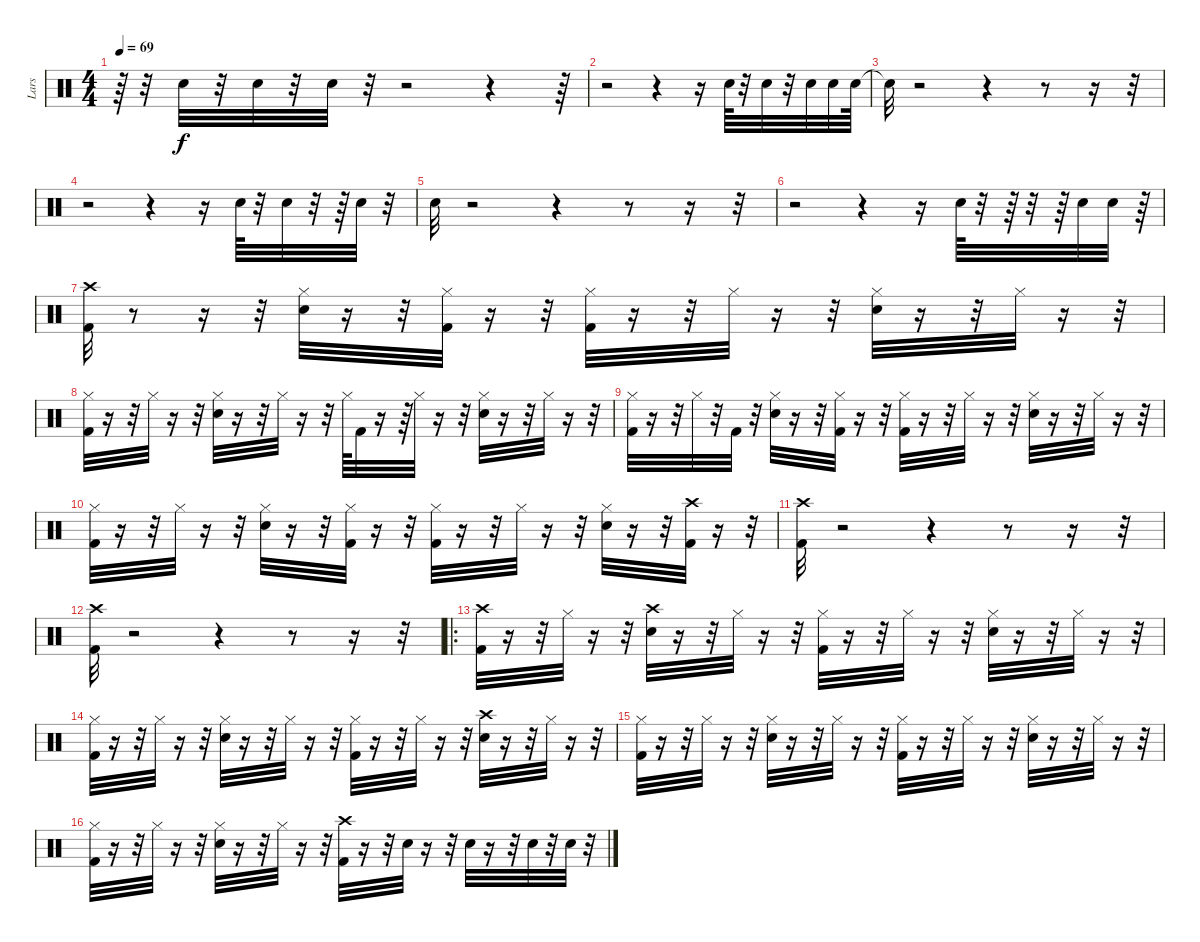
\track ("Lars" "Lars") {instrument percussion}
\staff {score}
\articulation defaults
\ts (4 4)
\tempo 69
\clef neutral
\ks c
r.64{dy f} r.32 "Snare (hit) 2".32 r.32 "Snare (hit) 2".32 r.32 "Snare (hit) 2".32 r.32 r.2 r.4 r.64 |
r.2 r.4 r.16 "Snare (hit) 2".64 r.32 "Snare (hit) 2".32 r.32 "Snare (hit) 2".32 "Snare (hit) 2".32 "Snare (hit) 2".64 |
"Snare (hit)"{t}.32 r.2 r.4 r.8 r.16 r.32 |
r.2 r.4 r.16 "Snare (hit) 2".64 r.32 "Snare (hit) 2".32 r.32 r.64 "Snare (hit) 2".32 r.32 |
"Snare (hit) 2".32 r.2 r.4 r.8 r.16 r.32 |
r.2 r.4 r.16 "Snare (hit) 2".64 r.32 r.64 r.32 r.64 "Snare (hit) 2".32 "Snare (hit) 2".32 r.64 |
("Kick (hit) 2" "Crash high (hit)").32 r.8 r.16 r.32 ("Snare (hit) 2" "Hi-Hat (closed)").32 r.16 r.32 ("Hi-Hat (closed)" "Kick (hit) 2").32 r.16 r.32 ("Hi-Hat (closed)" "Kick (hit) 2").32 r.16 r.32 "Hi-Hat (closed)".32 r.16 r.32 ("Snare (hit) 2" "Hi-Hat (closed)").32 r.16 r.32 "Hi-Hat (closed)".32 r.16 r.32 |
("Hi-Hat (closed)" "Kick (hit) 2").32 r.16 r.32 "Hi-Hat (closed)".32 r.16 r.32 ("Snare (hit) 2" "Hi-Hat (closed)").32 r.16 r.32 "Hi-Hat (closed)".32 r.16 r.32 "Hi-Hat (closed)".64 "Kick (hit) 2".32 r.16 r.64 "Hi-Hat (closed)".32 r.16 r.32 ("Snare (hit) 2" "Hi-Hat (closed)").32 r.16 r.32 "Hi-Hat (closed)".32 r.16 r.32 |
("Hi-Hat (closed)" "Kick (hit) 2").32 r.16 r.32 "Hi-Hat (closed)".32 r.32 "Kick (hit) 2".32 r.32 ("Snare (hit) 2" "Hi-Hat (closed)").32 r.16 r.32 ("Hi-Hat (closed)" "Kick (hit) 2").32 r.16 r.32 ("Hi-Hat (closed)" "Kick (hit) 2").32 r.16 r.32 "Hi-Hat (closed)".32 r.16 r.32 ("Snare (hit) 2" "Hi-Hat (closed)").32 r.16 r.32 "Hi-Hat (closed)".32 r.16 r.32 |
("Kick (hit) 2" "Hi-Hat (closed)").32 r.16 r.32 "Hi-Hat (closed)".32 r.16 r.32 ("Snare (hit) 2" "Hi-Hat (closed)").32 r.16 r.32 ("Kick (hit) 2" "Hi-Hat (closed)").32 r.16 r.32 ("Hi-Hat (closed)" "Kick (hit) 2").32 r.16 r.32 "Hi-Hat (closed)".32 r.16 r.32 ("Snare (hit) 2" "Hi-Hat (closed)").32 r.16 r.32 ("Crash high (hit)" "Kick (hit) 2").32 r.16 r.32 |
("Kick (hit) 2" "Crash high (hit)").32 r.2 r.4 r.8 r.16 r.32 |
("Kick (hit) 2" "Crash high (hit)").32 r.2 r.4 r.8 r.16 r.32 |
\ro
("Kick (hit) 2" "Crash high (hit)").32 r.16 r.32 "Hi-Hat (closed)".32 r.16 r.32 ("Crash high (hit)" "Snare (hit) 2").32 r.16 r.32 "Hi-Hat (closed)".32 r.16 r.32 ("Hi-Hat (closed)" "Kick (hit) 2").32 r.16 r.32 "Hi-Hat (closed)".32 r.16 r.32 ("Snare (hit) 2" "Hi-Hat (closed)").32 r.16 r.32 "Hi-Hat (closed)".32 r.16 r.32 |
("Kick (hit) 2" "Hi-Hat (closed)").32 r.16 r.32 "Hi-Hat (closed)".32 r.16 r.32 ("Snare (hit) 2" "Hi-Hat (closed)").32 r.16 r.32 "Hi-Hat (closed)".32 r.16 r.32 ("Hi-Hat (closed)" "Kick (hit) 2").32 r.16 r.32 "Hi-Hat (closed)".32 r.16 r.32 ("Crash high (hit)" "Snare (hit) 2").32 r.16 r.32 "Hi-Hat (closed)".32 r.16 r.32 |
("Hi-Hat (closed)" "Kick (hit) 2").32 r.16 r.32 "Hi-Hat (closed)".32 r.16 r.32 ("Snare (hit) 2" "Hi-Hat (closed)").32 r.16 r.32 "Hi-Hat (closed)".32 r.16 r.32 ("Hi-Hat (closed)" "Kick (hit) 2").32 r.16 r.32 "Hi-Hat (closed)".32 r.16 r.32 ("Snare (hit) 2" "Hi-Hat (closed)").32 r.16 r.32 "Hi-Hat (closed)".32 r.16 r.32 |
("Kick (hit) 2" "Hi-Hat (closed)").32 r.16 r.32 "Hi-Hat (closed)".32 r.16 r.32 ("Snare (hit) 2" "Hi-Hat (closed)").32 r.16 r.32 "Hi-Hat (closed)".32 r.16 r.32 ("Crash high (hit)" "Kick (hit) 2").32 r.16 r.32 "Snare (hit) 2".32 r.16 r.32 "Snare (hit) 2".32 r.16 r.32 "Snare (hit) 2".32 r.32 "Snare (hit) 2".32 r.32
